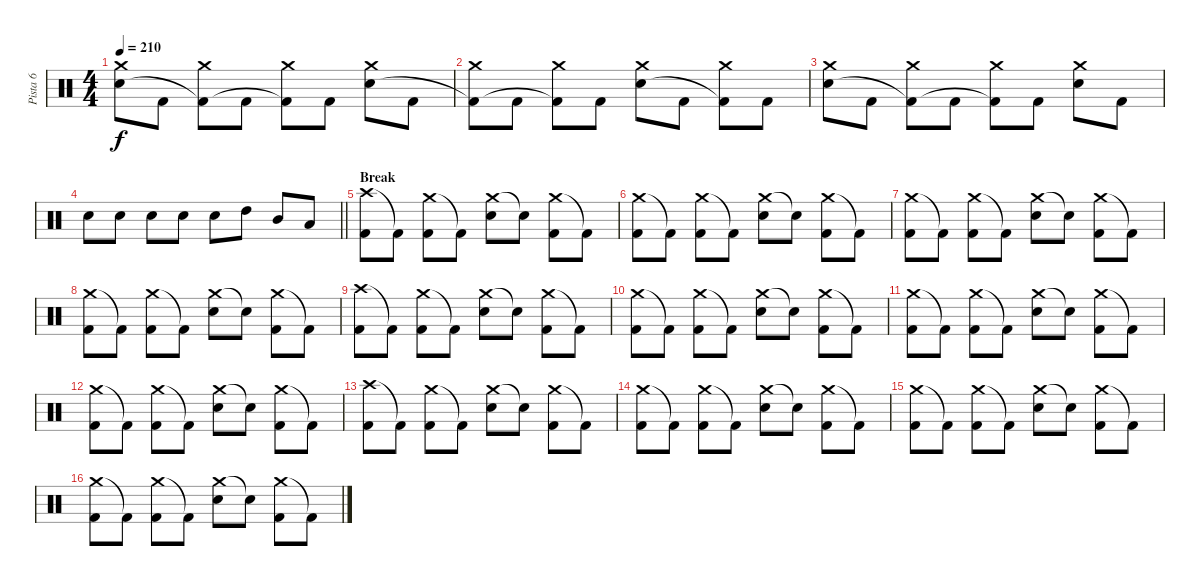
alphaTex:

\track ("Pista 6" "Pista 6") {instrument percussion}
\staff {score}
\articulation defaults
\ts (4 4)
\tempo 210
\clef neutral
\ks c
("Crash medium (hit)" "Electric Snare (hit)").8{dy f} "Kick (hit) 2".8 ("Crash medium (hit)" "Kick (hit) 2"{t}).8 "Kick (hit) 2".8 ("Crash medium (hit)" "Kick (hit) 2"{t}).8 "Kick (hit) 2".8 ("Crash medium (hit)" "Electric Snare (hit)").8 "Kick (hit) 2".8 |
("Crash medium (hit)" "Kick (hit) 2"{t}).8 "Kick (hit) 2".8 ("Crash medium (hit)" "Kick (hit) 2"{t}).8 "Kick (hit) 2".8 ("Crash medium (hit)" "Electric Snare (hit)").8 "Kick (hit) 2".8 ("Crash medium (hit)" "Kick (hit) 2"{t}).8 "Kick (hit) 2".8 |
("Crash medium (hit)" "Electric Snare (hit)").8 "Kick (hit) 2".8 ("Crash medium (hit)" "Kick (hit) 2"{t}).8 "Kick (hit) 2".8 ("Crash medium (hit)" "Kick (hit) 2"{t}).8 "Kick (hit) 2".8 ("Crash medium (hit)" "Electric Snare (hit)").8 "Kick (hit) 2".8 |
\barLineRight lightlight "Electric Snare (hit)".8 "Electric Snare (hit)".8 "Electric Snare (hit)".8 "Electric Snare (hit)".8 "Electric Snare (hit)".8 "High Tom (hit)".8 "Mid Tom (hit)".8 "Low Tom (hit)".8
|
\section ("" "Break")
("Crash high (hit)" "Kick (hit) 2").8 "Kick (hit) 2"{t}.8 ("Crash medium (hit)" "Kick (hit) 2").8 "Kick (hit) 2"{t}.8 ("Crash medium (hit)" "Electric Snare (hit)").8 "Electric Snare (hit)"{t}.8 ("Crash medium (hit)" "Kick (hit) 2").8 "Kick (hit) 2"{t}.8 |
("Crash medium (hit)" "Kick (hit) 2").8 "Kick (hit) 2"{t}.8 ("Crash medium (hit)" "Kick (hit) 2").8 "Kick (hit) 2"{t}.8 ("Crash medium (hit)" "Electric Snare (hit)").8 "Electric Snare (hit)"{t}.8 ("Crash medium (hit)" "Kick (hit) 2").8 "Kick (hit) 2"{t}.8 |
("Crash medium (hit)" "Kick (hit) 2").8 "Kick (hit) 2"{t}.8 ("Crash medium (hit)" "Kick (hit) 2").8 "Kick (hit) 2"{t}.8 ("Crash medium (hit)" "Electric Snare (hit)").8 "Electric Snare (hit)"{t}.8 ("Crash medium (hit)" "Kick (hit) 2").8 "Kick (hit) 2"{t}.8 |
("Crash medium (hit)" "Kick (hit) 2").8 "Kick (hit) 2"{t}.8 ("Crash medium (hit)" "Kick (hit) 2").8 "Kick (hit) 2"{t}.8 ("Crash medium (hit)" "Electric Snare (hit)").8 "Electric Snare (hit)"{t}.8 ("Crash medium (hit)" "Kick (hit) 2").8 "Kick (hit) 2"{t}.8 |
("Crash high (hit)" "Kick (hit) 2").8 "Kick (hit) 2"{t}.8 ("Crash medium (hit)" "Kick (hit) 2").8 "Kick (hit) 2"{t}.8 ("Crash medium (hit)" "Electric Snare (hit)").8 "Electric Snare (hit)"{t}.8 ("Crash medium (hit)" "Kick (hit) 2").8 "Kick (hit) 2"{t}.8 |
("Crash medium (hit)" "Kick (hit) 2").8 "Kick (hit) 2"{t}.8 ("Crash medium (hit)" "Kick (hit) 2").8 "Kick (hit) 2"{t}.8 ("Crash medium (hit)" "Electric Snare (hit)").8 "Electric Snare (hit)"{t}.8 ("Crash medium (hit)" "Kick (hit) 2").8 "Kick (hit) 2"{t}.8 |
("Crash medium (hit)" "Kick (hit) 2").8 "Kick (hit) 2"{t}.8 ("Crash medium (hit)" "Kick (hit) 2").8 "Kick (hit) 2"{t}.8 ("Crash medium (hit)" "Electric Snare (hit)").8 "Electric Snare (hit)"{t}.8 ("Crash medium (hit)" "Kick (hit) 2").8 "Kick (hit) 2"{t}.8 |
("Crash medium (hit)" "Kick (hit) 2").8 "Kick (hit) 2"{t}.8 ("Crash medium (hit)" "Kick (hit) 2").8 "Kick (hit) 2"{t}.8 ("Crash medium (hit)" "Electric Snare (hit)").8 "Electric Snare (hit)"{t}.8 ("Crash medium (hit)" "Kick (hit) 2").8 "Kick (hit) 2"{t}.8 |
("Crash high (hit)" "Kick (hit) 2").8 "Kick (hit) 2"{t}.8 ("Crash medium (hit)" "Kick (hit) 2").8 "Kick (hit) 2"{t}.8 ("Crash medium (hit)" "Electric Snare (hit)").8 "Electric Snare (hit)"{t}.8 ("Crash medium (hit)" "Kick (hit) 2").8 "Kick (hit) 2"{t}.8 |
("Crash medium (hit)" "Kick (hit) 2").8 "Kick (hit) 2"{t}.8 ("Crash medium (hit)" "Kick (hit) 2").8 "Kick (hit) 2"{t}.8 ("Crash medium (hit)" "Electric Snare (hit)").8 "Electric Snare (hit)"{t}.8 ("Crash medium (hit)" "Kick (hit) 2").8 "Kick (hit) 2"{t}.8 |
("Crash medium (hit)" "Kick (hit) 2").8 "Kick (hit) 2"{t}.8 ("Crash medium (hit)" "Kick (hit) 2").8 "Kick (hit) 2"{t}.8 ("Crash medium (hit)" "Electric Snare (hit)").8 "Electric Snare (hit)"{t}.8 ("Crash medium (hit)" "Kick (hit) 2").8 "Kick (hit) 2"{t}.8 |
("Crash medium (hit)" "Kick (hit) 2").8 "Kick (hit) 2"{t}.8 ("Crash medium (hit)" "Kick (hit) 2").8 "Kick (hit) 2"{t}.8 ("Crash medium (hit)" "Electric Snare (hit)").8 "Electric Snare (hit)"{t}.8 ("Crash medium (hit)" "Kick (hit) 2").8 "Kick (hit) 2"{t}.8
